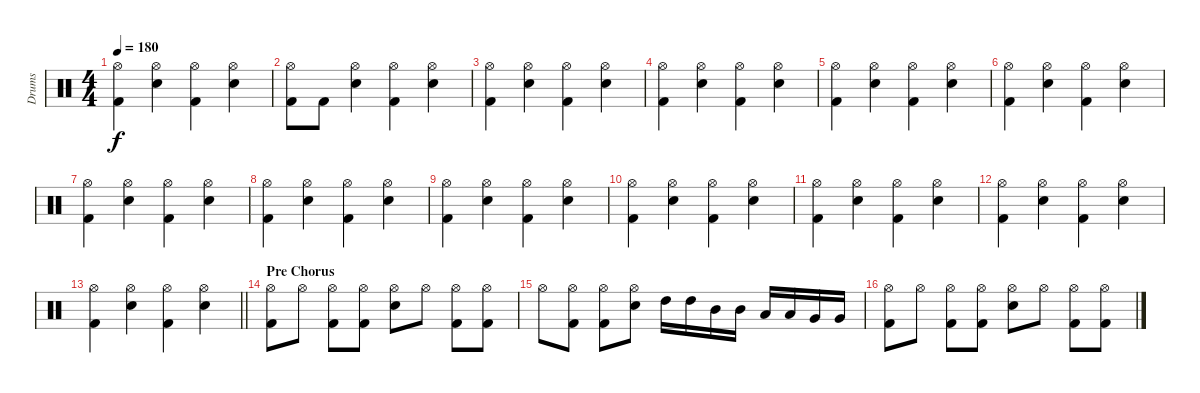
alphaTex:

\track ("Drums" "Drums") {instrument percussion}
\staff {score}
\articulation defaults
\ts (4 4)
\tempo 180
\clef neutral
\ks c
("Hi-Hat (open)" "Kick (hit) 2").4{dy f} ("Hi-Hat (open)" "Electric Snare (hit)").4 ("Hi-Hat (open)" "Kick (hit) 2").4 ("Hi-Hat (open)" "Electric Snare (hit)").4 |
("Hi-Hat (open)" "Kick (hit) 2").8 "Kick (hit) 2".8 ("Hi-Hat (open)" "Electric Snare (hit)").4 ("Hi-Hat (open)" "Kick (hit) 2").4 ("Hi-Hat (open)" "Electric Snare (hit)").4 |
("Hi-Hat (open)" "Kick (hit) 2").4 ("Hi-Hat (open)" "Electric Snare (hit)").4 ("Hi-Hat (open)" "Kick (hit) 2").4 ("Hi-Hat (open)" "Electric Snare (hit)").4 |
("Hi-Hat (open)" "Kick (hit) 2").4 ("Hi-Hat (open)" "Electric Snare (hit)").4 ("Hi-Hat (open)" "Kick (hit) 2").4 ("Hi-Hat (open)" "Electric Snare (hit)").4 |
("Hi-Hat (open)" "Kick (hit) 2").4 ("Hi-Hat (open)" "Electric Snare (hit)").4 ("Hi-Hat (open)" "Kick (hit) 2").4 ("Hi-Hat (open)" "Electric Snare (hit)").4 |
("Hi-Hat (open)" "Kick (hit) 2").4 ("Hi-Hat (open)" "Electric Snare (hit)").4 ("Hi-Hat (open)" "Kick (hit) 2").4 ("Hi-Hat (open)" "Electric Snare (hit)").4 |
("Hi-Hat (open)" "Kick (hit) 2").4 ("Hi-Hat (open)" "Electric Snare (hit)").4 ("Hi-Hat (open)" "Kick (hit) 2").4 ("Hi-Hat (open)" "Electric Snare (hit)").4 |
("Hi-Hat (open)" "Kick (hit) 2").4 ("Hi-Hat (open)" "Electric Snare (hit)").4 ("Hi-Hat (open)" "Kick (hit) 2").4 ("Hi-Hat (open)" "Electric Snare (hit)").4 |
("Hi-Hat (open)" "Kick (hit) 2").4 ("Hi-Hat (open)" "Electric Snare (hit)").4 ("Hi-Hat (open)" "Kick (hit) 2").4 ("Hi-Hat (open)" "Electric Snare (hit)").4 |
("Hi-Hat (open)" "Kick (hit) 2").4 ("Hi-Hat (open)" "Electric Snare (hit)").4 ("Hi-Hat (open)" "Kick (hit) 2").4 ("Hi-Hat (open)" "Electric Snare (hit)").4 |
("Hi-Hat (open)" "Kick (hit) 2").4 ("Hi-Hat (open)" "Electric Snare (hit)").4 ("Hi-Hat (open)" "Kick (hit) 2").4 ("Hi-Hat (open)" "Electric Snare (hit)").4 |
("Hi-Hat (open)" "Kick (hit) 2").4 ("Hi-Hat (open)" "Electric Snare (hit)").4 ("Hi-Hat (open)" "Kick (hit) 2").4 ("Hi-Hat (open)" "Electric Snare (hit)").4 |
\barLineRight lightlight
("Hi-Hat (open)" "Kick (hit) 2").4 ("Hi-Hat (open)" "Electric Snare (hit)").4 ("Hi-Hat (open)" "Kick (hit) 2").4 ("Hi-Hat (open)" "Electric Snare (hit)").4 |
\section ("" "Pre Chorus")
("Hi-Hat (open)" "Kick (hit) 2").8 "Hi-Hat (open)".8 ("Hi-Hat (open)" "Kick (hit) 2").8 ("Hi-Hat (open)" "Kick (hit) 2").8 ("Hi-Hat (open)" "Electric Snare (hit)").8 "Hi-Hat (open)".8 ("Hi-Hat (open)" "Kick (hit) 2").8 ("Hi-Hat (open)" "Kick (hit) 2").8 |
"Hi-Hat (open)".8 ("Hi-Hat (open)" "Kick (hit) 2").8 ("Hi-Hat (open)" "Kick (hit) 2").8 ("Hi-Hat (open)" "Electric Snare (hit)").8 "High Tom (hit)".16 "High Tom (hit)".16 "Mid Tom (hit)".16 "Mid Tom (hit)".16 "Low Tom (hit)".16 "Low Tom (hit)".16 "Very Low Tom (hit)".16 "Very Low Tom (hit)".16 |
("Hi-Hat (open)" "Kick (hit) 2").8 "Hi-Hat (open)".8 ("Hi-Hat (open)" "Kick (hit) 2").8 ("Hi-Hat (open)" "Kick (hit) 2").8 ("Hi-Hat (open)" "Electric Snare (hit)").8 "Hi-Hat (open)".8 ("Hi-Hat (open)" "Kick (hit) 2").8 ("Hi-Hat (open)" "Kick (hit) 2").8
